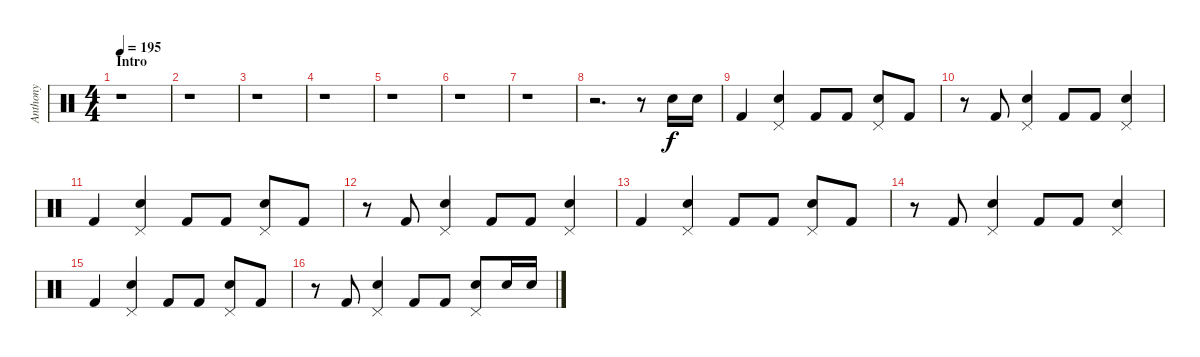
\track ("Anthony" "Anthony") {instrument percussion}
\staff {score}
\articulation defaults
\ts (4 4)
\section ("" "Intro")
\tempo 195
\clef neutral
\ks c
r.1{dy f} |
r.1 |
r.1 |
r.1 |
r.1 |
r.1 |
r.1 |
r.2{d} r.8 "Electric Snare (hit)".16 "Electric Snare (hit)".16 |
"Kick (hit) 2".4 ("Pedal Hi-Hat (hit)" "Electric Snare (hit)").4 "Kick (hit) 2".8 "Kick (hit) 2".8 ("Pedal Hi-Hat (hit)" "Electric Snare (hit)").8 "Kick (hit) 2".8 |
r.8 "Kick (hit) 2".8 ("Pedal Hi-Hat (hit)" "Electric Snare (hit)").4 "Kick (hit) 2".8 "Kick (hit) 2".8 ("Pedal Hi-Hat (hit)" "Electric Snare (hit)").4 |
"Kick (hit) 2".4 ("Pedal Hi-Hat (hit)" "Electric Snare (hit)").4 "Kick (hit) 2".8 "Kick (hit) 2".8 ("Pedal Hi-Hat (hit)" "Electric Snare (hit)").8 "Kick (hit) 2".8 |
r.8 "Kick (hit) 2".8 ("Pedal Hi-Hat (hit)" "Electric Snare (hit)").4 "Kick (hit) 2".8 "Kick (hit) 2".8 ("Pedal Hi-Hat (hit)" "Electric Snare (hit)").4 |
"Kick (hit) 2".4 ("Pedal Hi-Hat (hit)" "Electric Snare (hit)").4 "Kick (hit) 2".8 "Kick (hit) 2".8 ("Pedal Hi-Hat (hit)" "Electric Snare (hit)").8 "Kick (hit) 2".8 |
r.8 "Kick (hit) 2".8 ("Pedal Hi-Hat (hit)" "Electric Snare (hit)").4 "Kick (hit) 2".8 "Kick (hit) 2".8 ("Pedal Hi-Hat (hit)" "Electric Snare (hit)").4 |
"Kick (hit) 2".4 ("Pedal Hi-Hat (hit)" "Electric Snare (hit)").4 "Kick (hit) 2".8 "Kick (hit) 2".8 ("Pedal Hi-Hat (hit)" "Electric Snare (hit)").8 "Kick (hit) 2".8 |
r.8 "Kick (hit) 2".8 ("Pedal Hi-Hat (hit)" "Electric Snare (hit)").4 "Kick (hit) 2".8 "Kick (hit) 2".8 ("Pedal Hi-Hat (hit)" "Electric Snare (hit)").8 "Electric Snare (hit)".16 "Electric Snare (hit)".16
